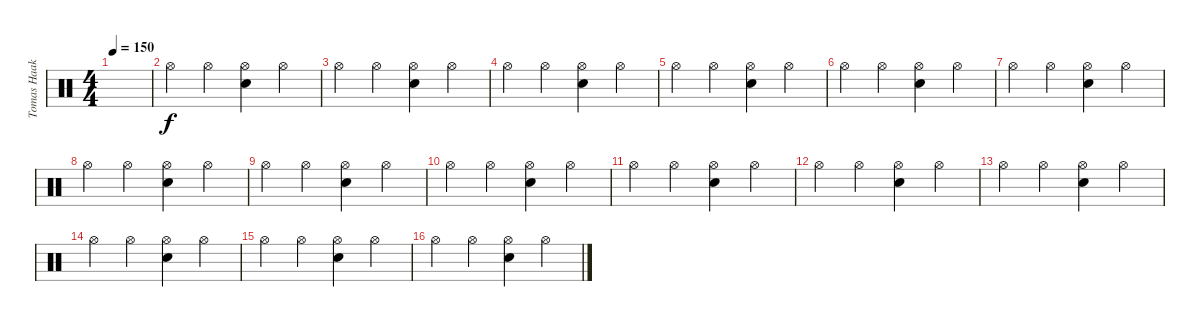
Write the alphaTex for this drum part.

\track ("Tomas Haake - Snares and cymbal" "Tomas Haak") {instrument percussion}
\staff {score}
\articulation defaults
\ts (4 4)
\tempo 150
\clef neutral
\ks c
|
"Hi-Hat (open)".4 "Hi-Hat (open)".4 ("Hi-Hat (open)" "Electric Snare (hit)").4 "Hi-Hat (open)".4 |
"Hi-Hat (open)".4 "Hi-Hat (open)".4 ("Hi-Hat (open)" "Electric Snare (hit)").4 "Hi-Hat (open)".4 |
"Hi-Hat (open)".4 "Hi-Hat (open)".4 ("Hi-Hat (open)" "Electric Snare (hit)").4 "Hi-Hat (open)".4 |
"Hi-Hat (open)".4 "Hi-Hat (open)".4 ("Hi-Hat (open)" "Electric Snare (hit)").4 "Hi-Hat (open)".4 |
"Hi-Hat (open)".4 "Hi-Hat (open)".4 ("Hi-Hat (open)" "Electric Snare (hit)").4 "Hi-Hat (open)".4 |
"Hi-Hat (open)".4 "Hi-Hat (open)".4 ("Hi-Hat (open)" "Electric Snare (hit)").4 "Hi-Hat (open)".4 |
"Hi-Hat (open)".4 "Hi-Hat (open)".4 ("Hi-Hat (open)" "Electric Snare (hit)").4 "Hi-Hat (open)".4 |
"Hi-Hat (open)".4 "Hi-Hat (open)".4 ("Hi-Hat (open)" "Electric Snare (hit)").4 "Hi-Hat (open)".4 |
"Hi-Hat (open)".4 "Hi-Hat (open)".4 ("Hi-Hat (open)" "Electric Snare (hit)").4 "Hi-Hat (open)".4 |
"Hi-Hat (open)".4 "Hi-Hat (open)".4 ("Hi-Hat (open)" "Electric Snare (hit)").4 "Hi-Hat (open)".4 |
"Hi-Hat (open)".4 "Hi-Hat (open)".4 ("Hi-Hat (open)" "Electric Snare (hit)").4 "Hi-Hat (open)".4 |
"Hi-Hat (open)".4 "Hi-Hat (open)".4 ("Hi-Hat (open)" "Electric Snare (hit)").4 "Hi-Hat (open)".4 |
"Hi-Hat (open)".4 "Hi-Hat (open)".4 ("Hi-Hat (open)" "Electric Snare (hit)").4 "Hi-Hat (open)".4 |
"Hi-Hat (open)".4 "Hi-Hat (open)".4 ("Hi-Hat (open)" "Electric Snare (hit)").4 "Hi-Hat (open)".4 |
"Hi-Hat (open)".4 "Hi-Hat (open)".4 ("Hi-Hat (open)" "Electric Snare (hit)").4 "Hi-Hat (open)".4
